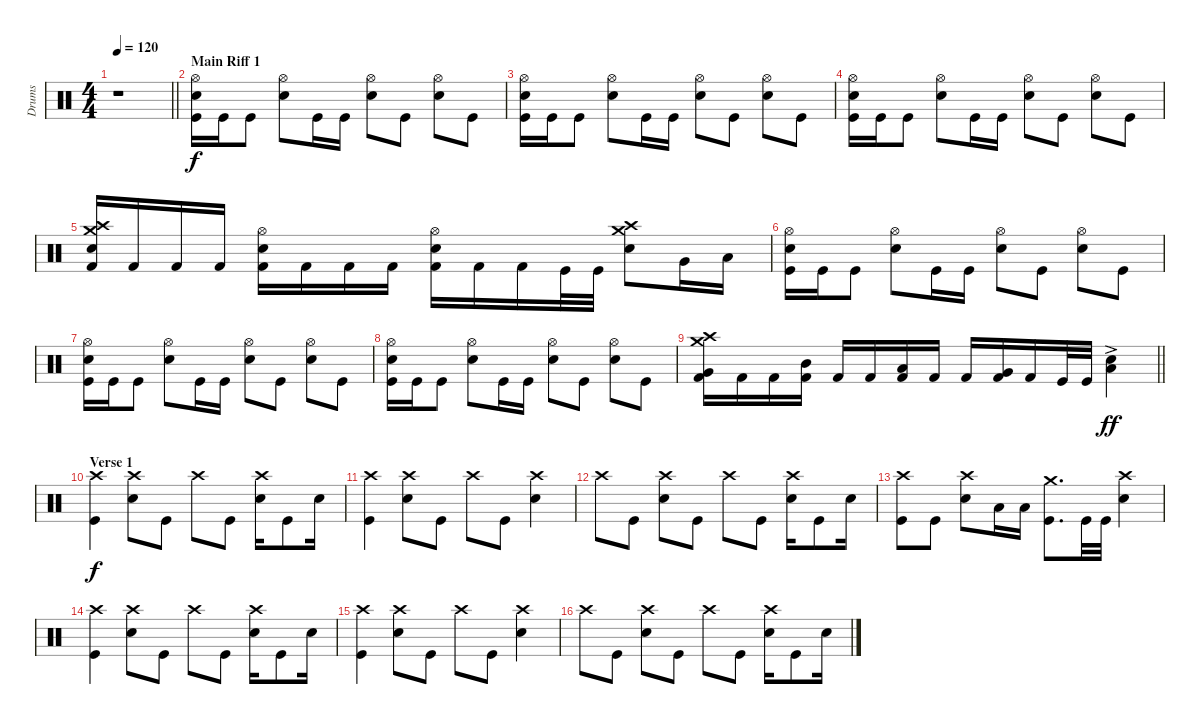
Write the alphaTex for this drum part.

\track ("Drums" "Drums") {instrument percussion}
\staff {score}
\articulation defaults
\ts (4 4)
\tempo 120
\clef neutral
\barLineRight lightlight
\ks c
r.1{dy f} |
\section ("" "Main Riff 1")
("Hi-Hat (open)" "Electric Snare (hit)" "Kick (hit)").16 "Kick (hit)".16 "Kick (hit)".8 ("Hi-Hat (open)" "Electric Snare (hit)").8 "Kick (hit)".16 "Kick (hit)".16 ("Hi-Hat (open)" "Electric Snare (hit)").8 "Kick (hit)".8 ("Hi-Hat (open)" "Electric Snare (hit)").8 "Kick (hit)".8 |
("Hi-Hat (open)" "Electric Snare (hit)" "Kick (hit)").16 "Kick (hit)".16 "Kick (hit)".8 ("Hi-Hat (open)" "Electric Snare (hit)").8 "Kick (hit)".16 "Kick (hit)".16 ("Hi-Hat (open)" "Electric Snare (hit)").8 "Kick (hit)".8 ("Hi-Hat (open)" "Electric Snare (hit)").8 "Kick (hit)".8 |
("Hi-Hat (open)" "Electric Snare (hit)" "Kick (hit)").16 "Kick (hit)".16 "Kick (hit)".8 ("Hi-Hat (open)" "Electric Snare (hit)").8 "Kick (hit)".16 "Kick (hit)".16 ("Hi-Hat (open)" "Electric Snare (hit)").8 "Kick (hit)".8 ("Hi-Hat (open)" "Electric Snare (hit)").8 "Kick (hit)".8 |
("Crash high (hit)" "Crash medium (hit)" "Electric Snare (hit)" "Kick (hit) 2").16 "Kick (hit) 2".16 "Kick (hit) 2".16 "Kick (hit) 2".16 ("Hi-Hat (open)" "Electric Snare (hit)" "Kick (hit) 2").16 "Kick (hit) 2".16 "Kick (hit) 2".16 "Kick (hit) 2".16 ("Hi-Hat (open)" "Electric Snare (hit)" "Kick (hit) 2").16 "Kick (hit) 2".16 "Kick (hit) 2".16 "Kick (hit)".32 "Kick (hit)".32 ("Crash high (hit)" "Crash medium (hit)" "Electric Snare (hit)").8 "Very Low Tom (hit)".16 "Low Floor Tom (hit)".16 |
("Hi-Hat (open)" "Electric Snare (hit)" "Kick (hit)").16 "Kick (hit)".16 "Kick (hit)".8 ("Hi-Hat (open)" "Electric Snare (hit)").8 "Kick (hit)".16 "Kick (hit)".16 ("Hi-Hat (open)" "Electric Snare (hit)").8 "Kick (hit)".8 ("Hi-Hat (open)" "Electric Snare (hit)").8 "Kick (hit)".8 |
("Hi-Hat (open)" "Electric Snare (hit)" "Kick (hit)").16 "Kick (hit)".16 "Kick (hit)".8 ("Hi-Hat (open)" "Electric Snare (hit)").8 "Kick (hit)".16 "Kick (hit)".16 ("Hi-Hat (open)" "Electric Snare (hit)").8 "Kick (hit)".8 ("Hi-Hat (open)" "Electric Snare (hit)").8 "Kick (hit)".8 |
("Hi-Hat (open)" "Electric Snare (hit)" "Kick (hit)").16 "Kick (hit)".16 "Kick (hit)".8 ("Hi-Hat (open)" "Electric Snare (hit)").8 "Kick (hit)".16 "Kick (hit)".16 ("Hi-Hat (open)" "Electric Snare (hit)").8 "Kick (hit)".8 ("Hi-Hat (open)" "Electric Snare (hit)").8 "Kick (hit)".8 |
\barLineRight lightlight
("Crash high (hit)" "Crash medium (hit)" "Very Low Tom (hit)" "Kick (hit) 2").16 "Kick (hit) 2".16 "Kick (hit) 2".16 ("Mid Tom (hit)" "Kick (hit) 2").16 "Kick (hit) 2".16 "Kick (hit) 2".16 ("Low Tom (hit)" "Kick (hit) 2").16 "Kick (hit) 2".16 "Kick (hit) 2".16 ("Very Low Tom (hit)" "Kick (hit) 2").16 "Kick (hit) 2".16 "Kick (hit)".32 "Kick (hit)".32 ("Electric Snare (hit)"{ac} "Low Tom (hit)").4{dy ff} |
\section ("" "Verse 1")
("Crash high (hit)" "Kick (hit)").4{dy f} ("Crash high (hit)" "Electric Snare (hit)").8 "Kick (hit)".8 "Crash high (hit)".8 "Kick (hit)".8 ("Crash high (hit)" "Electric Snare (hit)").16 "Kick (hit)".8 "Electric Snare (hit)".16 |
("Crash high (hit)" "Kick (hit)").4 ("Crash high (hit)" "Electric Snare (hit)").8 "Kick (hit)".8 "Crash high (hit)".8 "Kick (hit)".8 ("Crash high (hit)" "Electric Snare (hit)").4 |
"Crash high (hit)".8 "Kick (hit)".8 ("Crash high (hit)" "Electric Snare (hit)").8 "Kick (hit)".8 "Crash high (hit)".8 "Kick (hit)".8 ("Crash high (hit)" "Electric Snare (hit)").16 "Kick (hit)".8 "Electric Snare (hit)".16 |
("Crash high (hit)" "Kick (hit)").8 "Kick (hit)".8 ("Crash high (hit)" "Electric Snare (hit)").8 "Low Tom (hit)".16 "Low Tom (hit)".16 ("Crash medium (hit)" "Kick (hit)").8{d} "Kick (hit)".32 "Kick (hit)".32 ("Crash high (hit)" "Electric Snare (hit)").4 |
("Crash high (hit)" "Kick (hit)").4 ("Crash high (hit)" "Electric Snare (hit)").8 "Kick (hit)".8 "Crash high (hit)".8 "Kick (hit)".8 ("Crash high (hit)" "Electric Snare (hit)").16 "Kick (hit)".8 "Electric Snare (hit)".16 |
("Crash high (hit)" "Kick (hit)").4 ("Crash high (hit)" "Electric Snare (hit)").8 "Kick (hit)".8 "Crash high (hit)".8 "Kick (hit)".8 ("Crash high (hit)" "Electric Snare (hit)").4 |
"Crash high (hit)".8 "Kick (hit)".8 ("Crash high (hit)" "Electric Snare (hit)").8 "Kick (hit)".8 "Crash high (hit)".8 "Kick (hit)".8 ("Crash high (hit)" "Electric Snare (hit)").16 "Kick (hit)".8 "Electric Snare (hit)".16
